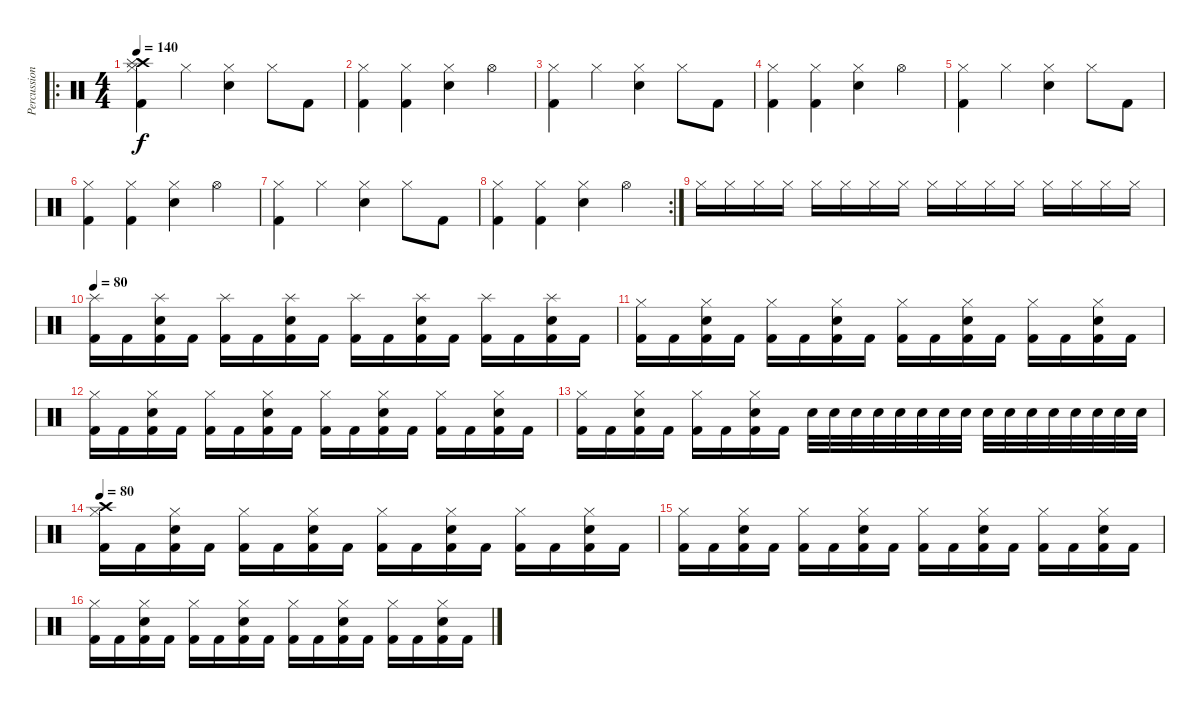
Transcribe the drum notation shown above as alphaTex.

\track ("Percussion" "Percussion") {instrument percussion}
\staff {score}
\articulation defaults
\ro
\ts (4 4)
\tempo 140
\clef neutral
\ks c
("Crash high (hit)" "Splash (hit)" "Hi-Hat (closed)" "Kick (hit) 2").4{dy f} "Hi-Hat (closed)".4 ("Hi-Hat (closed)" "Electric Snare (hit)").4 "Hi-Hat (closed)".8 "Kick (hit) 2".8 |
("Hi-Hat (closed)" "Kick (hit) 2").4 ("Hi-Hat (closed)" "Kick (hit) 2").4 ("Hi-Hat (closed)" "Electric Snare (hit)").4 "Hi-Hat (open)".4 |
("Hi-Hat (closed)" "Kick (hit) 2").4 "Hi-Hat (closed)".4 ("Hi-Hat (closed)" "Electric Snare (hit)").4 "Hi-Hat (closed)".8 "Kick (hit) 2".8 |
("Hi-Hat (closed)" "Kick (hit) 2").4 ("Hi-Hat (closed)" "Kick (hit) 2").4 ("Hi-Hat (closed)" "Electric Snare (hit)").4 "Hi-Hat (open)".4 |
("Hi-Hat (closed)" "Kick (hit) 2").4 "Hi-Hat (closed)".4 ("Hi-Hat (closed)" "Electric Snare (hit)").4 "Hi-Hat (closed)".8 "Kick (hit) 2".8 |
("Hi-Hat (closed)" "Kick (hit) 2").4 ("Hi-Hat (closed)" "Kick (hit) 2").4 ("Hi-Hat (closed)" "Electric Snare (hit)").4 "Hi-Hat (open)".4 |
("Hi-Hat (closed)" "Kick (hit) 2").4 "Hi-Hat (closed)".4 ("Hi-Hat (closed)" "Electric Snare (hit)").4 "Hi-Hat (closed)".8 "Kick (hit) 2".8 |
\rc 2
("Hi-Hat (closed)" "Kick (hit) 2").4 ("Hi-Hat (closed)" "Kick (hit) 2").4 ("Hi-Hat (closed)" "Electric Snare (hit)").4 "Hi-Hat (open)".4 |
"Hi-Hat (closed)".16 "Hi-Hat (closed)".16 "Hi-Hat (closed)".16 "Hi-Hat (closed)".16 "Hi-Hat (closed)".16 "Hi-Hat (closed)".16 "Hi-Hat (closed)".16 "Hi-Hat (closed)".16 "Hi-Hat (closed)".16 "Hi-Hat (closed)".16 "Hi-Hat (closed)".16 "Hi-Hat (closed)".16 "Hi-Hat (closed)".16 "Hi-Hat (closed)".16 "Hi-Hat (closed)".16 "Hi-Hat (closed)".16 |
\tempo 80
("Splash (hit)" "Kick (hit) 2").16 "Kick (hit) 2".16 ("Splash (hit)" "Kick (hit) 2" "Electric Snare (hit)").16 "Kick (hit) 2".16 ("Splash (hit)" "Kick (hit) 2").16 "Kick (hit) 2".16 ("Splash (hit)" "Kick (hit) 2" "Electric Snare (hit)").16 "Kick (hit) 2".16 ("Splash (hit)" "Kick (hit) 2").16 "Kick (hit) 2".16 ("Splash (hit)" "Kick (hit) 2" "Electric Snare (hit)").16 "Kick (hit) 2".16 ("Splash (hit)" "Kick (hit) 2").16 "Kick (hit) 2".16 ("Splash (hit)" "Kick (hit) 2" "Electric Snare (hit)").16 "Kick (hit) 2".16 |
("Hi-Hat (closed)" "Kick (hit) 2").16 "Kick (hit) 2".16 ("Hi-Hat (closed)" "Kick (hit) 2" "Electric Snare (hit)").16 "Kick (hit) 2".16 ("Hi-Hat (closed)" "Kick (hit) 2").16 "Kick (hit) 2".16 ("Hi-Hat (closed)" "Kick (hit) 2" "Electric Snare (hit)").16 "Kick (hit) 2".16 ("Hi-Hat (closed)" "Kick (hit) 2").16 "Kick (hit) 2".16 ("Hi-Hat (closed)" "Kick (hit) 2" "Electric Snare (hit)").16 "Kick (hit) 2".16 ("Hi-Hat (closed)" "Kick (hit) 2").16 "Kick (hit) 2".16 ("Hi-Hat (closed)" "Kick (hit) 2" "Electric Snare (hit)").16 "Kick (hit) 2".16 |
("Hi-Hat (closed)" "Kick (hit) 2").16 "Kick (hit) 2".16 ("Hi-Hat (closed)" "Kick (hit) 2" "Electric Snare (hit)").16 "Kick (hit) 2".16 ("Hi-Hat (closed)" "Kick (hit) 2").16 "Kick (hit) 2".16 ("Hi-Hat (closed)" "Kick (hit) 2" "Electric Snare (hit)").16 "Kick (hit) 2".16 ("Hi-Hat (closed)" "Kick (hit) 2").16 "Kick (hit) 2".16 ("Hi-Hat (closed)" "Kick (hit) 2" "Electric Snare (hit)").16 "Kick (hit) 2".16 ("Hi-Hat (closed)" "Kick (hit) 2").16 "Kick (hit) 2".16 ("Hi-Hat (closed)" "Kick (hit) 2" "Electric Snare (hit)").16 "Kick (hit) 2".16 |
("Hi-Hat (closed)" "Kick (hit) 2").16 "Kick (hit) 2".16 ("Hi-Hat (closed)" "Kick (hit) 2" "Electric Snare (hit)").16 "Kick (hit) 2".16 ("Hi-Hat (closed)" "Kick (hit) 2").16 "Kick (hit) 2".16 ("Hi-Hat (closed)" "Kick (hit) 2" "Electric Snare (hit)").16 "Kick (hit) 2".16 "Electric Snare (hit)".32 "Electric Snare (hit)".32 "Electric Snare (hit)".32 "Electric Snare (hit)".32 "Electric Snare (hit)".32 "Electric Snare (hit)".32 "Electric Snare (hit)".32 "Electric Snare (hit)".32 "Electric Snare (hit)".32 "Electric Snare (hit)".32 "Electric Snare (hit)".32 "Electric Snare (hit)".32 "Electric Snare (hit)".32 "Electric Snare (hit)".32 "Electric Snare (hit)".32 "Electric Snare (hit)".32 |
\tempo 80
("Hi-Hat (closed)" "Kick (hit) 2" "Crash high (hit)").16 "Kick (hit) 2".16 ("Hi-Hat (closed)" "Kick (hit) 2" "Electric Snare (hit)").16 "Kick (hit) 2".16 ("Hi-Hat (closed)" "Kick (hit) 2").16 "Kick (hit) 2".16 ("Hi-Hat (closed)" "Kick (hit) 2" "Electric Snare (hit)").16 "Kick (hit) 2".16 ("Hi-Hat (closed)" "Kick (hit) 2").16 "Kick (hit) 2".16 ("Hi-Hat (closed)" "Kick (hit) 2" "Electric Snare (hit)").16 "Kick (hit) 2".16 ("Hi-Hat (closed)" "Kick (hit) 2").16 "Kick (hit) 2".16 ("Hi-Hat (closed)" "Kick (hit) 2" "Electric Snare (hit)").16 "Kick (hit) 2".16 |
("Hi-Hat (closed)" "Kick (hit) 2").16 "Kick (hit) 2".16 ("Hi-Hat (closed)" "Kick (hit) 2" "Electric Snare (hit)").16 "Kick (hit) 2".16 ("Hi-Hat (closed)" "Kick (hit) 2").16 "Kick (hit) 2".16 ("Hi-Hat (closed)" "Kick (hit) 2" "Electric Snare (hit)").16 "Kick (hit) 2".16 ("Hi-Hat (closed)" "Kick (hit) 2").16 "Kick (hit) 2".16 ("Hi-Hat (closed)" "Kick (hit) 2" "Electric Snare (hit)").16 "Kick (hit) 2".16 ("Hi-Hat (closed)" "Kick (hit) 2").16 "Kick (hit) 2".16 ("Hi-Hat (closed)" "Kick (hit) 2" "Electric Snare (hit)").16 "Kick (hit) 2".16 |
("Hi-Hat (closed)" "Kick (hit) 2").16 "Kick (hit) 2".16 ("Hi-Hat (closed)" "Kick (hit) 2" "Electric Snare (hit)").16 "Kick (hit) 2".16 ("Hi-Hat (closed)" "Kick (hit) 2").16 "Kick (hit) 2".16 ("Hi-Hat (closed)" "Kick (hit) 2" "Electric Snare (hit)").16 "Kick (hit) 2".16 ("Hi-Hat (closed)" "Kick (hit) 2").16 "Kick (hit) 2".16 ("Hi-Hat (closed)" "Kick (hit) 2" "Electric Snare (hit)").16 "Kick (hit) 2".16 ("Hi-Hat (closed)" "Kick (hit) 2").16 "Kick (hit) 2".16 ("Hi-Hat (closed)" "Kick (hit) 2" "Electric Snare (hit)").16 "Kick (hit) 2".16
